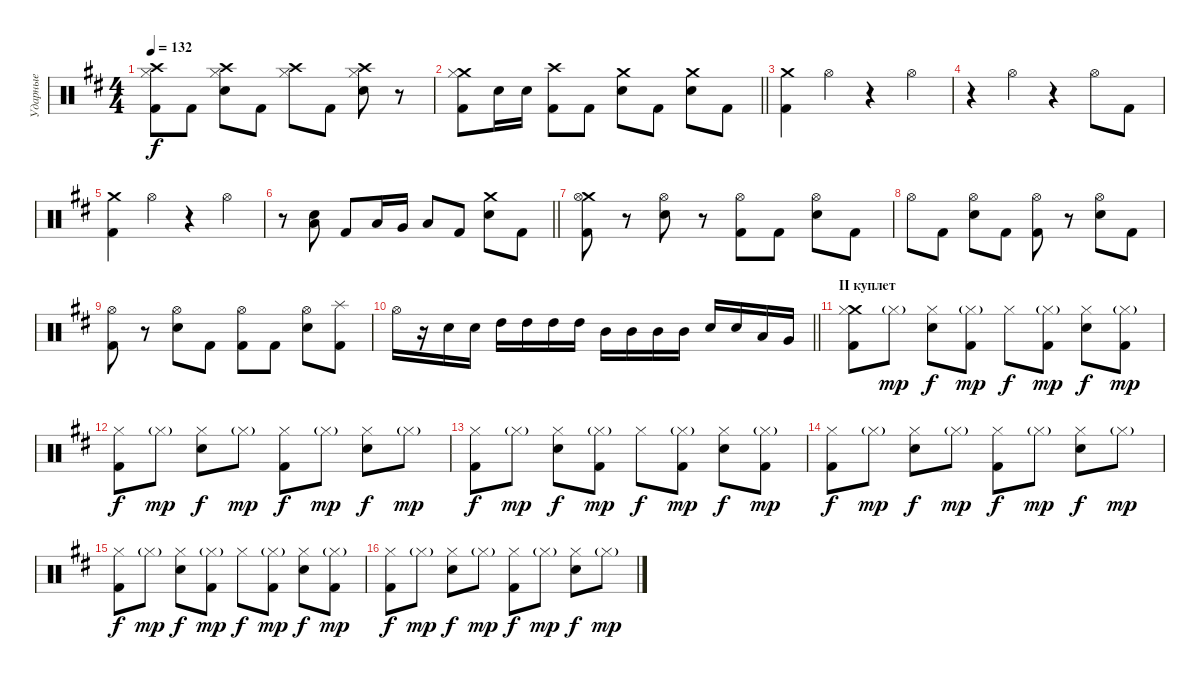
\track ("Ударные" "Ударные") {instrument percussion}
\staff {score}
\articulation defaults
\ts (4 4)
\tempo 132
\clef neutral
\ks bminor
("Crash high (hit)" "Kick (hit) 2" "Hi-Hat (closed)").8{dy f} "Kick (hit) 2".8 ("Crash high (hit)" "Electric Snare (hit)" "Hi-Hat (closed)").8 "Kick (hit) 2".8 ("Crash high (hit)" "Hi-Hat (closed)").8 "Kick (hit) 2".8 ("Crash high (hit)" "Electric Snare (hit)" "Hi-Hat (closed)").8 r.8 |
\barLineRight lightlight
("Crash medium (hit)" "Kick (hit) 2" "Hi-Hat (closed)").8 "Electric Snare (hit)".16 "Electric Snare (hit)".16 ("Crash high (hit)" "Kick (hit) 2").8 "Kick (hit) 2".8 ("Crash medium (hit)" "Electric Snare (hit)").8 "Kick (hit) 2".8 ("Crash medium (hit)" "Electric Snare (hit)").8 "Kick (hit) 2".8 |
\section ("" "")
("Crash medium (hit)" "Kick (hit) 2").4 "Hi-Hat (open)".4 r.4 "Hi-Hat (open)".4 |
r.4 "Hi-Hat (open)".4 r.4 "Hi-Hat (open)".8 "Kick (hit) 2".8 |
("Crash medium (hit)" "Kick (hit) 2").4 "Hi-Hat (open)".4 r.4 "Hi-Hat (open)".4 |
\barLineRight lightlight
r.8 ("Low Tom (hit)" "Electric Snare (hit)").8 "Kick (hit) 2".8 "Low Tom (hit)".16 "Very Low Tom (hit)".16 "Low Floor Tom (hit)".8 "Kick (hit) 2".8 ("Crash medium (hit)" "Electric Snare (hit)").8 "Kick (hit) 2".8 |
\section ("" "")
("Crash medium (hit)" "Kick (hit) 2" "Hi-Hat (open)").8 r.8 ("Electric Snare (hit)" "Hi-Hat (open)").8 r.8 ("Kick (hit) 2" "Hi-Hat (open)").8 "Kick (hit) 2".8 ("Electric Snare (hit)" "Hi-Hat (open)").8 "Kick (hit) 2".8 |
"Hi-Hat (open)".8 "Kick (hit) 2".8 ("Electric Snare (hit)" "Hi-Hat (open)").8 "Kick (hit) 2".8 ("Kick (hit) 2" "Hi-Hat (open)").8 r.8 ("Electric Snare (hit)" "Hi-Hat (open)").8 "Kick (hit) 2".8 |
("Kick (hit) 2" "Hi-Hat (open)").8 r.8 ("Electric Snare (hit)" "Hi-Hat (open)").8 "Kick (hit) 2".8 ("Kick (hit) 2" "Hi-Hat (open)").8 "Kick (hit) 2".8 ("Electric Snare (hit)" "Hi-Hat (open)").8 ("Splash (hit)" "Kick (hit) 2").8 |
\barLineRight lightlight "Hi-Hat (open)".16
r.16 "Electric Snare (hit)".16 "Electric Snare (hit)".16 "High Tom (hit)".16 "High Tom (hit)".16 "High Tom (hit)".16 "High Tom (hit)".16 "Mid Tom (hit)".16 "Mid Tom (hit)".16 "Mid Tom (hit)".16 "Mid Tom (hit)".16 "Electric Snare (hit)".16 "Electric Snare (hit)".16 "Low Tom (hit)".16 "Very Low Tom (hit)".16 |
\section ("" "II куплет")
("Crash medium (hit)" "Kick (hit) 2" "Hi-Hat (closed)").8 "Hi-Hat (closed)"{g}.8{dy mp} ("Electric Snare (hit)" "Hi-Hat (closed)").8{dy f} ("Kick (hit) 2" "Hi-Hat (closed)"{g}).8{dy mp} "Hi-Hat (closed)".8{dy f} ("Kick (hit) 2" "Hi-Hat (closed)"{g}).8{dy mp} ("Electric Snare (hit)" "Hi-Hat (closed)").8{dy f} ("Kick (hit) 2" "Hi-Hat (closed)"{g}).8{dy mp} |
("Kick (hit) 2" "Hi-Hat (closed)").8{dy f} "Hi-Hat (closed)"{g}.8{dy mp} ("Electric Snare (hit)" "Hi-Hat (closed)").8{dy f} "Hi-Hat (closed)"{g}.8{dy mp} ("Kick (hit) 2" "Hi-Hat (closed)").8{dy f} "Hi-Hat (closed)"{g}.8{dy mp} ("Electric Snare (hit)" "Hi-Hat (closed)").8{dy f} "Hi-Hat (closed)"{g}.8{dy mp} |
("Kick (hit) 2" "Hi-Hat (closed)").8{dy f} "Hi-Hat (closed)"{g}.8{dy mp} ("Electric Snare (hit)" "Hi-Hat (closed)").8{dy f} ("Kick (hit) 2" "Hi-Hat (closed)"{g}).8{dy mp} "Hi-Hat (closed)".8{dy f} ("Kick (hit) 2" "Hi-Hat (closed)"{g}).8{dy mp} ("Electric Snare (hit)" "Hi-Hat (closed)").8{dy f} ("Kick (hit) 2" "Hi-Hat (closed)"{g}).8{dy mp} |
("Kick (hit) 2" "Hi-Hat (closed)").8{dy f} "Hi-Hat (closed)"{g}.8{dy mp} ("Electric Snare (hit)" "Hi-Hat (closed)").8{dy f} "Hi-Hat (closed)"{g}.8{dy mp} ("Kick (hit) 2" "Hi-Hat (closed)").8{dy f} "Hi-Hat (closed)"{g}.8{dy mp} ("Electric Snare (hit)" "Hi-Hat (closed)").8{dy f} "Hi-Hat (closed)"{g}.8{dy mp} |
("Kick (hit) 2" "Hi-Hat (closed)").8{dy f} "Hi-Hat (closed)"{g}.8{dy mp} ("Electric Snare (hit)" "Hi-Hat (closed)").8{dy f} ("Kick (hit) 2" "Hi-Hat (closed)"{g}).8{dy mp} "Hi-Hat (closed)".8{dy f} ("Kick (hit) 2" "Hi-Hat (closed)"{g}).8{dy mp} ("Electric Snare (hit)" "Hi-Hat (closed)").8{dy f} ("Kick (hit) 2" "Hi-Hat (closed)"{g}).8{dy mp} |
("Kick (hit) 2" "Hi-Hat (closed)").8{dy f} "Hi-Hat (closed)"{g}.8{dy mp} ("Electric Snare (hit)" "Hi-Hat (closed)").8{dy f} "Hi-Hat (closed)"{g}.8{dy mp} ("Kick (hit) 2" "Hi-Hat (closed)").8{dy f} "Hi-Hat (closed)"{g}.8{dy mp} ("Electric Snare (hit)" "Hi-Hat (closed)").8{dy f} "Hi-Hat (closed)"{g}.8{dy mp}
